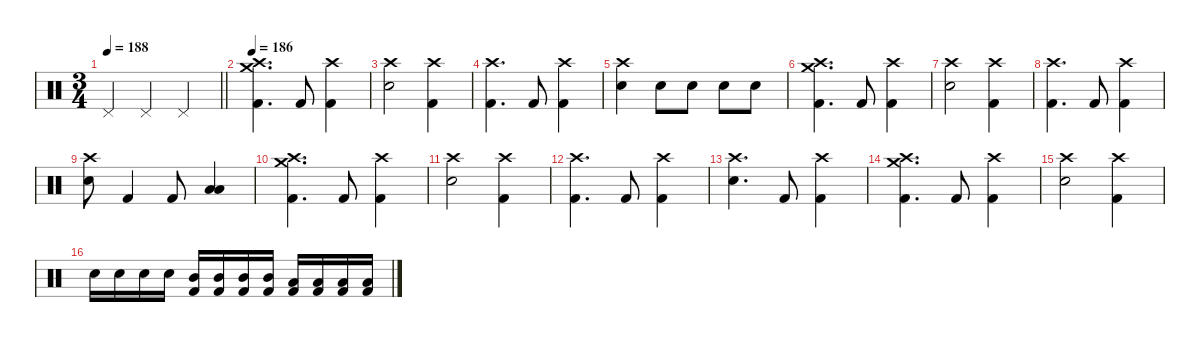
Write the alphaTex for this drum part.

\defaultSystemsLayout 4
\hideDynamics
\bracketExtendMode nobrackets
\singleTrackTrackNamePolicy hidden
\multiTrackTrackNamePolicy hidden
\firstSystemTrackNameMode fullname
\otherSystemsTrackNameOrientation horizontal
\track ("Drums" "drm.") {defaultSystemsLayout 4 instrument percussion}
\staff {score}
\articulation defaults
\ts (3 4)
\tempo 188
\clef neutral
\barLineRight lightlight
\ks c "Pedal Hi-Hat (hit)".4{dy f beam Up} "Pedal Hi-Hat (hit)".4{dy mp beam Up} "Pedal Hi-Hat (hit)".4{beam Up}
|
\tempo 186
("Crash medium (hit)" "Crash high (hit)" "Kick (hit) 2").4{d dy f beam Down} "Kick (hit) 2".8{beam Up} ("Crash high (hit)" "Kick (hit) 2").4{dy mf beam Down} |
("Crash high (hit)" "Snare (hit) 2").2{dy f beam Down} ("Crash high (hit)" "Kick (hit) 2").4{dy mf beam Down} |
("Crash high (hit)" "Kick (hit) 2").4{d dy f beam Down} "Kick (hit) 2".8{beam Up} ("Crash high (hit)" "Kick (hit) 2").4{dy mf beam Down} |
("Crash high (hit)" "Snare (hit) 2").4{dy f beam Down} "Snare (hit) 2".8{beam Down} "Snare (hit) 2".8{beam Down} "Snare (hit) 2".8{beam Down} "Snare (hit) 2".8{beam Down} |
("Crash medium (hit)" "Crash high (hit)" "Kick (hit) 2").4{d beam Down} "Kick (hit) 2".8{beam Up} ("Crash high (hit)" "Kick (hit) 2").4{dy mf beam Down} |
("Crash high (hit)" "Snare (hit) 2").2{dy f beam Down} ("Crash high (hit)" "Kick (hit) 2").4{dy mf beam Down} |
("Crash high (hit)" "Kick (hit) 2").4{d dy f beam Down} "Kick (hit) 2".8{beam Up} ("Crash high (hit)" "Kick (hit) 2").4{dy mf beam Down} |
("Crash high (hit)" "Snare (hit) 2").8{dy f beam Down} "Kick (hit) 2".4{beam Up} "Kick (hit) 2".8{beam Up} ("Low Floor Tom (hit)" "Low Floor Tom (hit)").4{beam Up} |
("Crash medium (hit)" "Crash high (hit)" "Kick (hit) 2").4{d beam Down} "Kick (hit) 2".8{beam Up} ("Crash high (hit)" "Kick (hit) 2").4{dy mf beam Down} |
("Crash high (hit)" "Snare (hit) 2").2{dy f beam Down} ("Crash high (hit)" "Kick (hit) 2").4{dy mf beam Down} |
("Crash high (hit)" "Kick (hit) 2").4{d dy f beam Down} "Kick (hit) 2".8{beam Up} ("Crash high (hit)" "Kick (hit) 2").4{dy mf beam Down} |
("Crash high (hit)" "Snare (hit) 2").4{d dy f beam Down} "Kick (hit) 2".8{beam Up} ("Crash high (hit)" "Kick (hit) 2").4{dy mf beam Down} |
("Crash medium (hit)" "Crash high (hit)" "Kick (hit) 2").4{d dy f beam Down} "Kick (hit) 2".8{beam Up} ("Crash high (hit)" "Kick (hit) 2").4{dy mf beam Down} |
("Crash high (hit)" "Snare (hit) 2").2{dy f beam Down} ("Crash high (hit)" "Kick (hit) 2").4{dy mf beam Down} |
"Snare (hit) 2".16{dy f beam Down} "Snare (hit) 2".16{beam Down} "Snare (hit) 2".16{beam Down} "Snare (hit) 2".16{beam Down} ("Mid Tom (hit)" "Kick (hit) 2").16{beam Up} ("Mid Tom (hit)" "Kick (hit) 2").16{beam Up} ("Mid Tom (hit)" "Kick (hit) 2").16{beam Up} ("Mid Tom (hit)" "Kick (hit) 2").16{beam Up} ("Low Tom (hit)" "Kick (hit) 2").16{beam Up} ("Low Tom (hit)" "Kick (hit) 2").16{beam Up} ("Low Tom (hit)" "Kick (hit) 2").16{beam Up} ("Low Tom (hit)" "Kick (hit) 2").16{beam Up}
